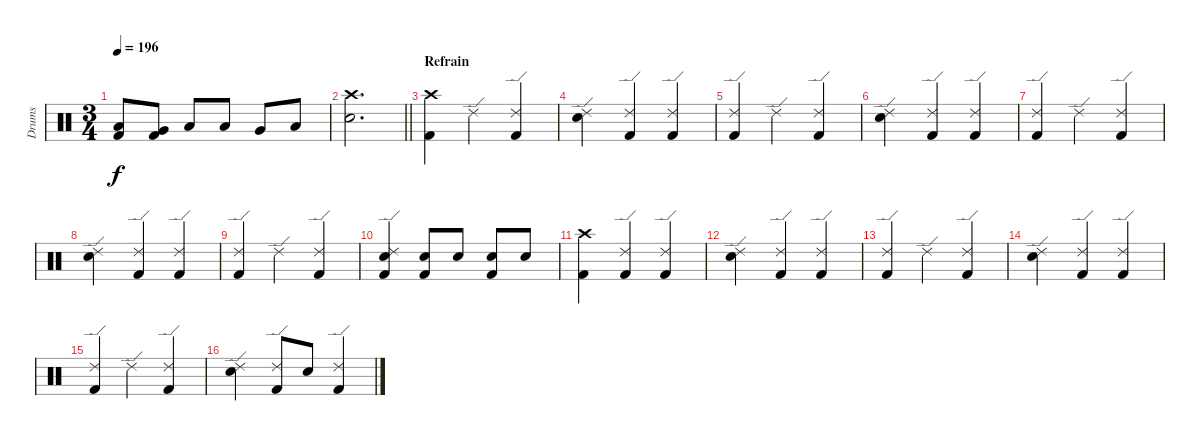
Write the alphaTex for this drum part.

\track ("Drums" "Drums") {instrument percussion}
\staff {score}
\articulation defaults
\ts (3 4)
\tempo 196
\clef neutral
\ks c
("Low Tom (hit)" "Kick (hit) 2").8{dy f} ("Very Low Tom (hit)" "Kick (hit) 2").8 "Low Floor Tom (hit)".8 "Low Tom (hit)".8 "Very Low Tom (hit)".8 "Low Floor Tom (hit)".8 |
\barLineRight lightlight
("Crash high (hit)" "Electric Snare (hit)").2{d} |
\section ("" "Refrain")
("Crash high (hit)" "Kick (hit) 2").4 "Ride (edge) 2".4 ("Ride (edge) 2" "Kick (hit) 2").4 |
("Ride (edge) 2" "Electric Snare (hit)").4 ("Ride (edge) 2" "Kick (hit) 2").4 ("Ride (edge) 2" "Kick (hit) 2").4 |
("Ride (edge) 2" "Kick (hit) 2").4 "Ride (edge) 2".4 ("Ride (edge) 2" "Kick (hit) 2").4 |
("Ride (edge) 2" "Electric Snare (hit)").4 ("Ride (edge) 2" "Kick (hit) 2").4 ("Ride (edge) 2" "Kick (hit) 2").4 |
("Ride (edge) 2" "Kick (hit) 2").4 "Ride (edge) 2".4 ("Ride (edge) 2" "Kick (hit) 2").4 |
("Ride (edge) 2" "Electric Snare (hit)").4 ("Ride (edge) 2" "Kick (hit) 2").4 ("Ride (edge) 2" "Kick (hit) 2").4 |
("Ride (edge) 2" "Kick (hit) 2").4 "Ride (edge) 2".4 ("Ride (edge) 2" "Kick (hit) 2").4 |
("Ride (edge) 2" "Electric Snare (hit)" "Kick (hit) 2").4 ("Electric Snare (hit)" "Kick (hit) 2").8 "Electric Snare (hit)".8 ("Electric Snare (hit)" "Kick (hit) 2").8 "Electric Snare (hit)".8 |
("Crash high (hit)" "Kick (hit) 2").4 ("Ride (edge) 2" "Kick (hit) 2").4 ("Ride (edge) 2" "Kick (hit) 2").4 |
("Ride (edge) 2" "Electric Snare (hit)").4 ("Ride (edge) 2" "Kick (hit) 2").4 ("Ride (edge) 2" "Kick (hit) 2").4 |
("Ride (edge) 2" "Kick (hit) 2").4 "Ride (edge) 2".4 ("Ride (edge) 2" "Kick (hit) 2").4 |
("Ride (edge) 2" "Electric Snare (hit)").4 ("Ride (edge) 2" "Kick (hit) 2").4 ("Ride (edge) 2" "Kick (hit) 2").4 |
("Ride (edge) 2" "Kick (hit) 2").4 "Ride (edge) 2".4 ("Ride (edge) 2" "Kick (hit) 2").4 |
("Ride (edge) 2" "Electric Snare (hit)").4 ("Ride (edge) 2" "Kick (hit) 2").8 "Electric Snare (hit)".8 ("Ride (edge) 2" "Kick (hit) 2").4
